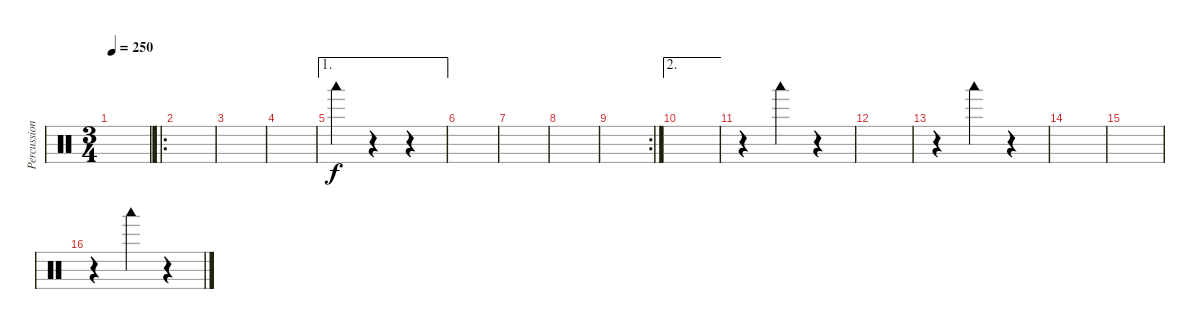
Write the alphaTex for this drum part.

\track ("Percussion" "Percussion") {instrument percussion}
\staff {score}
\articulation defaults
\ts (3 4)
\tempo 250
\clef neutral
\ks c
|
\ro
|
|
|
\ae 1 "Woodblock low (hit)".4
r.4 r.4 |
|
|
|
\rc 2
|
\ae 2
|
r.4 "Woodblock low (hit)".4 r.4 |
|
r.4 "Woodblock low (hit)".4 r.4 |
|
|
r.4 "Woodblock low (hit)".4 r.4
